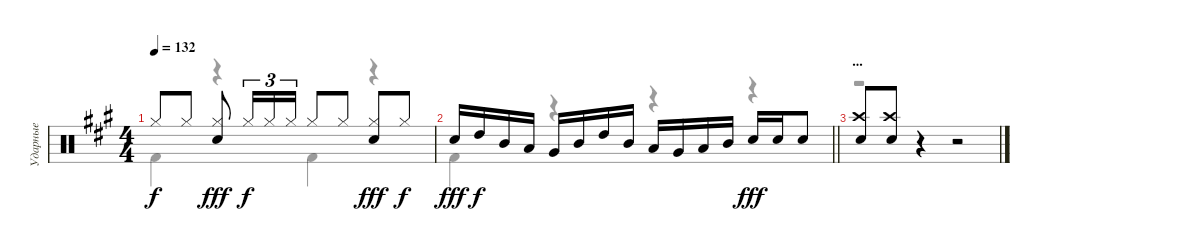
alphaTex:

\track ("Ударные" "Ударные") {instrument percussion}
\staff {score}
\articulation defaults
\voice
\ts (4 4)
\tempo 132
\clef neutral
\ks a "Hi-Hat (closed)".8{dy f} "Hi-Hat (closed)".8
("Hi-Hat (closed)" "Electric Snare (hit)").8{dy fff} "Hi-Hat (closed)".16{tu (3 2) dy f} "Hi-Hat (closed)".16{tu (3 2)} "Hi-Hat (closed)".16{tu (3 2)} "Hi-Hat (closed)".8 "Hi-Hat (closed)".8 ("Hi-Hat (closed)" "Electric Snare (hit)").8{dy fff} "Hi-Hat (closed)".8{dy f} |
\barLineRight lightlight "Electric Snare (hit)".16{dy fff} "High Tom (hit)".16{dy f} "Mid Tom (hit)".16 "Low Tom (hit)".16 "Very Low Tom (hit)".16 "Mid Tom (hit)".16 "High Tom (hit)".16 "Mid Tom (hit)".16 "Low Tom (hit)".16 "Very Low Tom (hit)".16 "Low Tom (hit)".16 "Mid Tom (hit)".16 "Electric Snare (hit)".16{dy fff} "Electric Snare (hit)".16 "Electric Snare (hit)".8
|
\section ("" "...")
("Electric Snare (hit)" "Crash high (hit)").8 ("Electric Snare (hit)" "Crash high (hit)").8 r.4 r.2
\voice
\clef neutral
\ottava regular
\simile none
\ks a "Kick (hit) 2".4{dy f}
r.4 "Kick (hit) 2".4 r.4 |
\barLineRight lightlight "Kick (hit) 2".4
r.4 r.4 r.4 |
r.1
